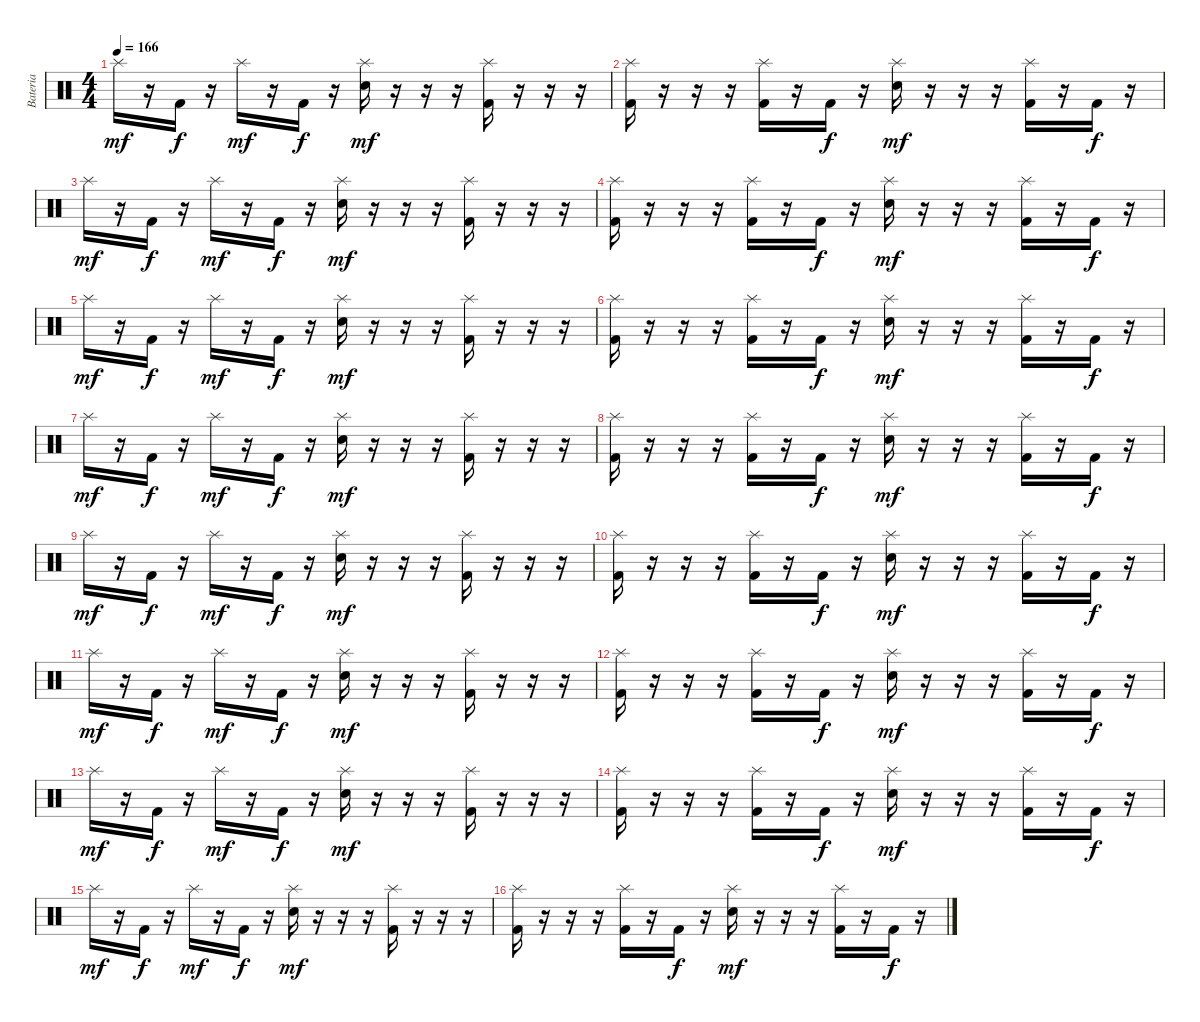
\track ("Bateria" "Bateria") {instrument percussion}
\staff {score}
\articulation defaults
\ts (4 4)
\tempo 166
\clef neutral
\ks c "Splash (hit)".16{dy mf}
r.16 "Kick (hit) 2".16{dy f} r.16 "Splash (hit)".16{dy mf} r.16 "Kick (hit) 2".16{dy f} r.16 ("Splash (hit)" "Electric Snare (hit)").16{dy mf} r.16 r.16 r.16 ("Splash (hit)" "Kick (hit) 2").16 r.16 r.16 r.16 |
("Splash (hit)" "Kick (hit) 2").16 r.16 r.16 r.16 ("Splash (hit)" "Kick (hit) 2").16 r.16 "Kick (hit) 2".16{dy f} r.16 ("Splash (hit)" "Electric Snare (hit)").16{dy mf} r.16 r.16 r.16 ("Splash (hit)" "Kick (hit) 2").16 r.16 "Kick (hit) 2".16{dy f} r.16 |
"Splash (hit)".16{dy mf} r.16 "Kick (hit) 2".16{dy f} r.16 "Splash (hit)".16{dy mf} r.16 "Kick (hit) 2".16{dy f} r.16 ("Splash (hit)" "Electric Snare (hit)").16{dy mf} r.16 r.16 r.16 ("Splash (hit)" "Kick (hit) 2").16 r.16 r.16 r.16 |
("Splash (hit)" "Kick (hit) 2").16 r.16 r.16 r.16 ("Splash (hit)" "Kick (hit) 2").16 r.16 "Kick (hit) 2".16{dy f} r.16 ("Splash (hit)" "Electric Snare (hit)").16{dy mf} r.16 r.16 r.16 ("Splash (hit)" "Kick (hit) 2").16 r.16 "Kick (hit) 2".16{dy f} r.16 |
"Splash (hit)".16{dy mf} r.16 "Kick (hit) 2".16{dy f} r.16 "Splash (hit)".16{dy mf} r.16 "Kick (hit) 2".16{dy f} r.16 ("Splash (hit)" "Electric Snare (hit)").16{dy mf} r.16 r.16 r.16 ("Splash (hit)" "Kick (hit) 2").16 r.16 r.16 r.16 |
("Splash (hit)" "Kick (hit) 2").16 r.16 r.16 r.16 ("Splash (hit)" "Kick (hit) 2").16 r.16 "Kick (hit) 2".16{dy f} r.16 ("Splash (hit)" "Electric Snare (hit)").16{dy mf} r.16 r.16 r.16 ("Splash (hit)" "Kick (hit) 2").16 r.16 "Kick (hit) 2".16{dy f} r.16 |
"Splash (hit)".16{dy mf} r.16 "Kick (hit) 2".16{dy f} r.16 "Splash (hit)".16{dy mf} r.16 "Kick (hit) 2".16{dy f} r.16 ("Splash (hit)" "Electric Snare (hit)").16{dy mf} r.16 r.16 r.16 ("Splash (hit)" "Kick (hit) 2").16 r.16 r.16 r.16 |
("Splash (hit)" "Kick (hit) 2").16 r.16 r.16 r.16 ("Splash (hit)" "Kick (hit) 2").16 r.16 "Kick (hit) 2".16{dy f} r.16 ("Splash (hit)" "Electric Snare (hit)").16{dy mf} r.16 r.16 r.16 ("Splash (hit)" "Kick (hit) 2").16 r.16 "Kick (hit) 2".16{dy f} r.16 |
"Splash (hit)".16{dy mf} r.16 "Kick (hit) 2".16{dy f} r.16 "Splash (hit)".16{dy mf} r.16 "Kick (hit) 2".16{dy f} r.16 ("Splash (hit)" "Electric Snare (hit)").16{dy mf} r.16 r.16 r.16 ("Splash (hit)" "Kick (hit) 2").16 r.16 r.16 r.16 |
("Splash (hit)" "Kick (hit) 2").16 r.16 r.16 r.16 ("Splash (hit)" "Kick (hit) 2").16 r.16 "Kick (hit) 2".16{dy f} r.16 ("Splash (hit)" "Electric Snare (hit)").16{dy mf} r.16 r.16 r.16 ("Splash (hit)" "Kick (hit) 2").16 r.16 "Kick (hit) 2".16{dy f} r.16 |
"Splash (hit)".16{dy mf} r.16 "Kick (hit) 2".16{dy f} r.16 "Splash (hit)".16{dy mf} r.16 "Kick (hit) 2".16{dy f} r.16 ("Splash (hit)" "Electric Snare (hit)").16{dy mf} r.16 r.16 r.16 ("Splash (hit)" "Kick (hit) 2").16 r.16 r.16 r.16 |
("Splash (hit)" "Kick (hit) 2").16 r.16 r.16 r.16 ("Splash (hit)" "Kick (hit) 2").16 r.16 "Kick (hit) 2".16{dy f} r.16 ("Splash (hit)" "Electric Snare (hit)").16{dy mf} r.16 r.16 r.16 ("Splash (hit)" "Kick (hit) 2").16 r.16 "Kick (hit) 2".16{dy f} r.16 |
"Splash (hit)".16{dy mf} r.16 "Kick (hit) 2".16{dy f} r.16 "Splash (hit)".16{dy mf} r.16 "Kick (hit) 2".16{dy f} r.16 ("Splash (hit)" "Electric Snare (hit)").16{dy mf} r.16 r.16 r.16 ("Splash (hit)" "Kick (hit) 2").16 r.16 r.16 r.16 |
("Splash (hit)" "Kick (hit) 2").16 r.16 r.16 r.16 ("Splash (hit)" "Kick (hit) 2").16 r.16 "Kick (hit) 2".16{dy f} r.16 ("Splash (hit)" "Electric Snare (hit)").16{dy mf} r.16 r.16 r.16 ("Splash (hit)" "Kick (hit) 2").16 r.16 "Kick (hit) 2".16{dy f} r.16 |
"Splash (hit)".16{dy mf} r.16 "Kick (hit) 2".16{dy f} r.16 "Splash (hit)".16{dy mf} r.16 "Kick (hit) 2".16{dy f} r.16 ("Splash (hit)" "Electric Snare (hit)").16{dy mf} r.16 r.16 r.16 ("Splash (hit)" "Kick (hit) 2").16 r.16 r.16 r.16 |
("Splash (hit)" "Kick (hit) 2").16 r.16 r.16 r.16 ("Splash (hit)" "Kick (hit) 2").16 r.16 "Kick (hit) 2".16{dy f} r.16 ("Splash (hit)" "Electric Snare (hit)").16{dy mf} r.16 r.16 r.16 ("Splash (hit)" "Kick (hit) 2").16 r.16 "Kick (hit) 2".16{dy f} r.16
